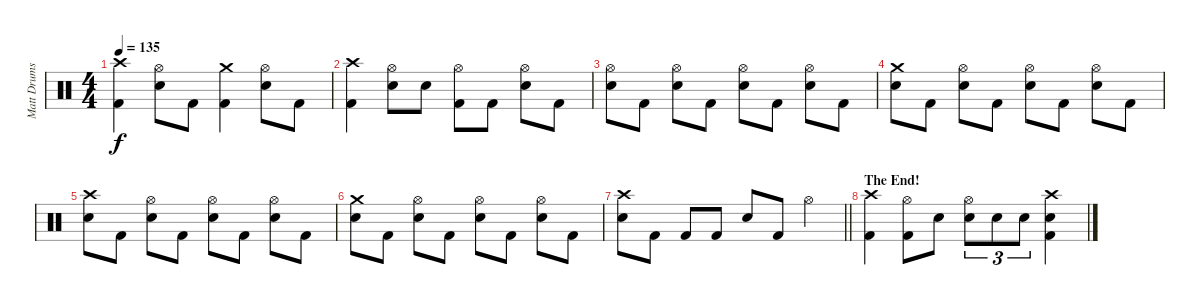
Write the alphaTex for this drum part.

\track ("Matt Drums" "Matt Drums") {instrument percussion}
\staff {score}
\articulation defaults
\ts (4 4)
\tempo 135
\clef neutral
\ks c
("Crash high (hit)" "Kick (hit) 2").4{dy f} ("Hi-Hat (open)" "Snare (hit) 2").8 "Kick (hit) 2".8 ("Crash medium (hit)" "Kick (hit) 2").4 ("Hi-Hat (open)" "Snare (hit) 2").8 "Kick (hit) 2".8 |
("Crash high (hit)" "Kick (hit) 2").4 ("Hi-Hat (open)" "Snare (hit) 2").8 "Snare (hit) 2".8 ("Hi-Hat (open)" "Kick (hit) 2").8 "Kick (hit) 2".8 ("Hi-Hat (open)" "Snare (hit) 2").8 "Kick (hit) 2".8 |
("Hi-Hat (open)" "Snare (hit) 2").8 "Kick (hit) 2".8 ("Hi-Hat (open)" "Snare (hit) 2").8 "Kick (hit) 2".8 ("Hi-Hat (open)" "Snare (hit) 2").8 "Kick (hit) 2".8 ("Hi-Hat (open)" "Snare (hit) 2").8 "Kick (hit) 2".8 |
("Crash medium (hit)" "Snare (hit) 2").8 "Kick (hit) 2".8 ("Hi-Hat (open)" "Snare (hit) 2").8 "Kick (hit) 2".8 ("Hi-Hat (open)" "Snare (hit) 2").8 "Kick (hit) 2".8 ("Hi-Hat (open)" "Snare (hit) 2").8 "Kick (hit) 2".8 |
("Crash high (hit)" "Snare (hit) 2").8 "Kick (hit) 2".8 ("Hi-Hat (open)" "Snare (hit) 2").8 "Kick (hit) 2".8 ("Hi-Hat (open)" "Snare (hit) 2").8 "Kick (hit) 2".8 ("Hi-Hat (open)" "Snare (hit) 2").8 "Kick (hit) 2".8 |
("Crash medium (hit)" "Snare (hit) 2").8 "Kick (hit) 2".8 ("Hi-Hat (open)" "Snare (hit) 2").8 "Kick (hit) 2".8 ("Hi-Hat (open)" "Snare (hit) 2").8 "Kick (hit) 2".8 ("Hi-Hat (open)" "Snare (hit) 2").8 "Kick (hit) 2".8 |
\barLineRight lightlight
("Crash high (hit)" "Snare (hit) 2").8 "Kick (hit) 2".8 "Kick (hit) 2".8 "Kick (hit) 2".8 "Snare (hit) 2".8 "Kick (hit) 2".8 "Hi-Hat (open)".4 |
\section ("" "The End!")
("Crash high (hit)" "Kick (hit) 2").4 ("Hi-Hat (open)" "Kick (hit) 2").8 "Snare (hit) 2".8 ("Hi-Hat (open)" "Snare (hit) 2").8{tu (3 2)} "Snare (hit) 2".8{tu (3 2)} "Snare (hit) 2".8{tu (3 2)} ("Crash high (hit)" "Snare (hit) 2" "Kick (hit) 2").4
